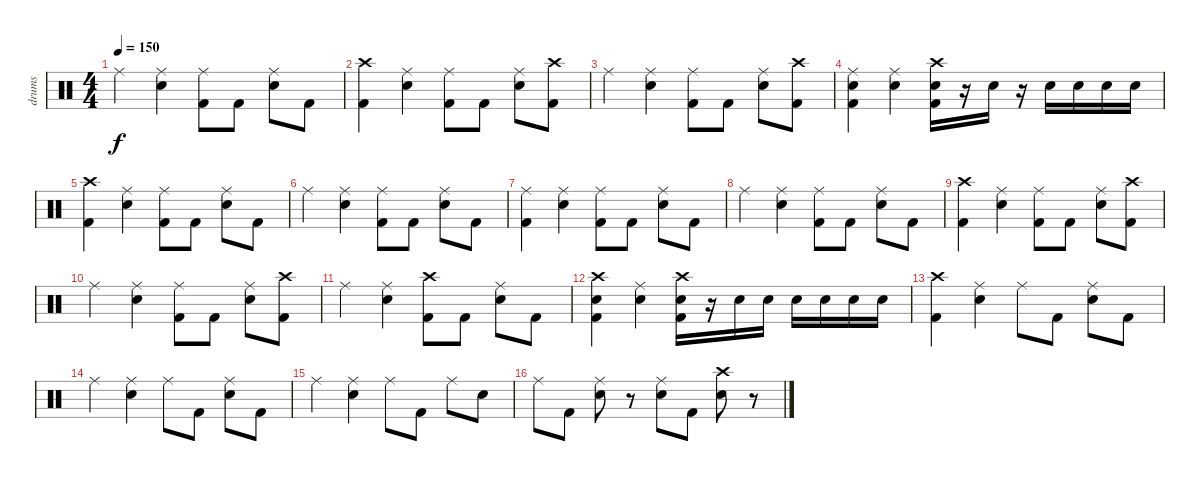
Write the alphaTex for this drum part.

\track ("drums" "drums") {instrument percussion}
\staff {score}
\articulation defaults
\ts (4 4)
\tempo 150
\clef neutral
\ks c "Ride (middle)".4{dy f}
("Ride (middle)" "Snare (hit) 2").4 ("Ride (middle)" "Kick (hit) 2").8 "Kick (hit) 2".8 ("Ride (middle)" "Snare (hit) 2").8 "Kick (hit) 2".8 |
("Crash high (hit)" "Kick (hit) 2").4 ("Ride (middle)" "Snare (hit) 2").4 ("Ride (middle)" "Kick (hit) 2").8 "Kick (hit) 2".8 ("Ride (middle)" "Snare (hit) 2").8 ("Crash high (hit)" "Kick (hit) 2").8 |
"Ride (middle)".4 ("Ride (middle)" "Snare (hit) 2").4 ("Ride (middle)" "Kick (hit) 2").8 "Kick (hit) 2".8 ("Ride (middle)" "Snare (hit) 2").8 ("Crash high (hit)" "Kick (hit) 2").8 |
("Ride (middle)" "Snare (hit) 2" "Kick (hit) 2").4 ("Ride (middle)" "Snare (hit) 2").4 ("Crash high (hit)" "Snare (hit) 2" "Kick (hit) 2").16 r.16 "Snare (hit) 2".16 r.16 "Snare (hit) 2".16 "Snare (hit) 2".16 "Snare (hit) 2".16 "Snare (hit) 2".16 |
("Crash high (hit)" "Kick (hit) 2").4 ("Ride (middle)" "Snare (hit) 2").4 ("Ride (middle)" "Kick (hit) 2").8 "Kick (hit) 2".8 ("Ride (middle)" "Snare (hit) 2").8 "Kick (hit) 2".8 |
"Ride (middle)".4 ("Ride (middle)" "Snare (hit) 2").4 ("Ride (middle)" "Kick (hit) 2").8 "Kick (hit) 2".8 ("Ride (middle)" "Snare (hit) 2").8 "Kick (hit) 2".8 |
("Ride (middle)" "Kick (hit) 2").4 ("Ride (middle)" "Snare (hit) 2").4 ("Ride (middle)" "Kick (hit) 2").8 "Kick (hit) 2".8 ("Ride (middle)" "Snare (hit) 2").8 "Kick (hit) 2".8 |
"Ride (middle)".4 ("Ride (middle)" "Snare (hit) 2").4 ("Ride (middle)" "Kick (hit) 2").8 "Kick (hit) 2".8 ("Ride (middle)" "Snare (hit) 2").8 "Kick (hit) 2".8 |
("Crash high (hit)" "Kick (hit) 2").4 ("Ride (middle)" "Snare (hit) 2").4 ("Ride (middle)" "Kick (hit) 2").8 "Kick (hit) 2".8 ("Ride (middle)" "Snare (hit) 2").8 ("Crash high (hit)" "Kick (hit) 2").8 |
"Ride (middle)".4 ("Ride (middle)" "Snare (hit) 2").4 ("Ride (middle)" "Kick (hit) 2").8 "Kick (hit) 2".8 ("Ride (middle)" "Snare (hit) 2").8 ("Crash high (hit)" "Kick (hit) 2").8 |
"Ride (middle)".4 ("Ride (middle)" "Snare (hit) 2").4 ("Crash high (hit)" "Kick (hit) 2").8 "Kick (hit) 2".8 ("Ride (middle)" "Snare (hit) 2").8 "Kick (hit) 2".8 |
("Crash high (hit)" "Snare (hit) 2" "Kick (hit) 2").4 ("Ride (middle)" "Snare (hit) 2").4 ("Crash high (hit)" "Snare (hit) 2" "Kick (hit) 2").16 r.16 "Snare (hit) 2".16 "Snare (hit) 2".16 "Snare (hit) 2".16 "Snare (hit) 2".16 "Snare (hit) 2".16 "Snare (hit) 2".16 |
("Crash high (hit)" "Kick (hit) 2").4 ("Ride (middle)" "Snare (hit) 2").4 "Ride (middle)".8 "Kick (hit) 2".8 ("Ride (middle)" "Snare (hit) 2").8 "Kick (hit) 2".8 |
"Ride (middle)".4 ("Ride (middle)" "Snare (hit) 2").4 "Ride (middle)".8 "Kick (hit) 2".8 ("Ride (middle)" "Snare (hit) 2").8 "Kick (hit) 2".8 |
"Ride (middle)".4 ("Ride (middle)" "Snare (hit) 2").4 "Ride (middle)".8 "Kick (hit) 2".8 "Ride (middle)".8 "Snare (hit) 2".8 |
"Ride (middle)".8 "Kick (hit) 2".8 ("Ride (middle)" "Snare (hit) 2").8 r.8 ("Ride (middle)" "Snare (hit) 2").8 "Kick (hit) 2".8 ("Crash high (hit)" "Snare (hit) 2").8 r.8
